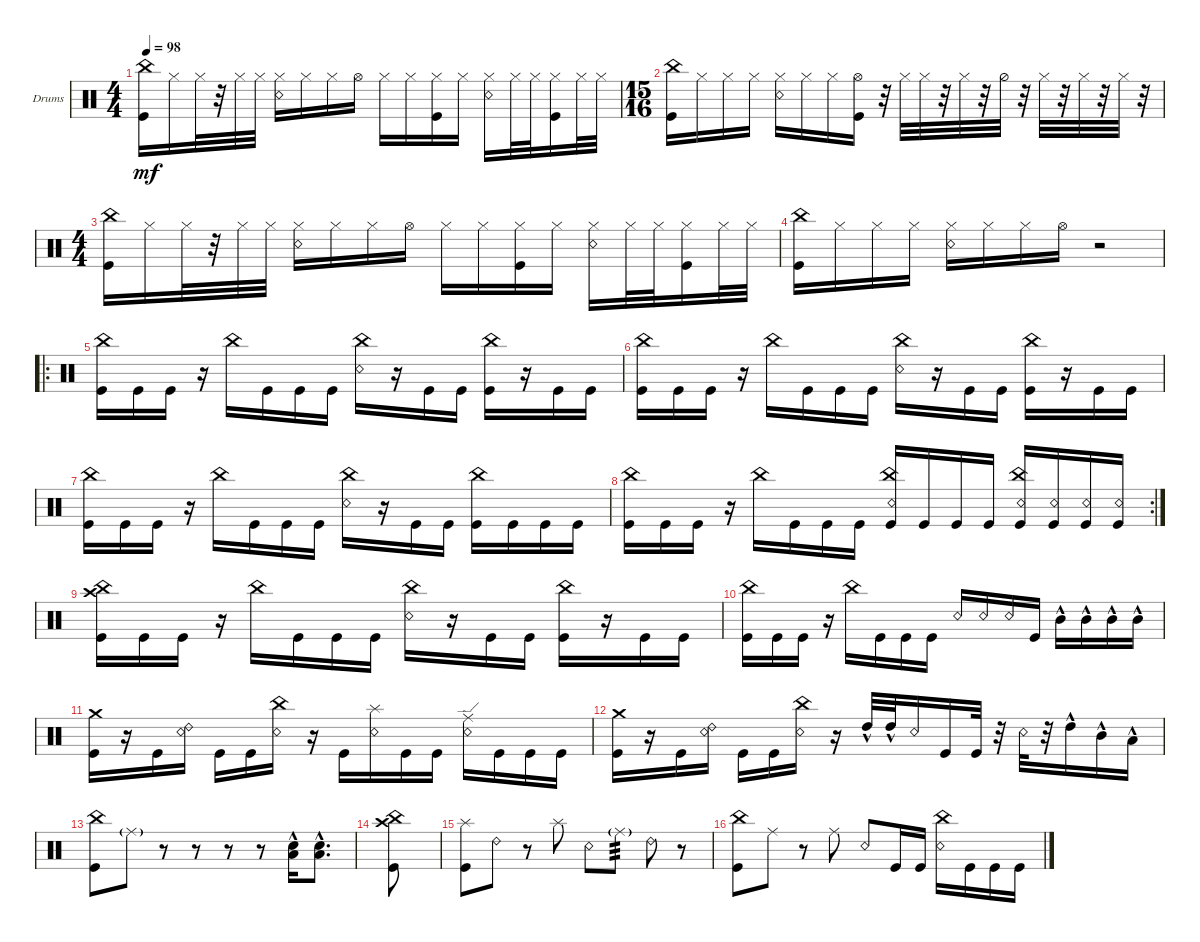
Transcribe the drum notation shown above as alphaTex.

\defaultSystemsLayout 4
\bracketExtendMode groupsimilarinstruments
\multiBarRest
\firstSystemTrackNameOrientation horizontal
\otherSystemsTrackNameOrientation horizontal
\track ("Drumkit" "Drums") {instrument percussion}
\staff {score}
\articulation defaults
\ts (4 4)
\tempo 98
\clef neutral
\ks c
("Kick (hit)" "China (hit)").16{dy mf} "Hi-Hat (closed)".16 "Hi-Hat (closed)".32 r.32 "Hi-Hat (closed)".32 "Hi-Hat (closed)".32 ("Hi-Hat (closed)" "Snare (rim shot)").16 "Hi-Hat (closed)".16 "Hi-Hat (closed)".16 "Hi-Hat (open)".16 "Hi-Hat (closed)".16 "Hi-Hat (closed)".16 ("Hi-Hat (closed)" "Kick (hit)").16 "Hi-Hat (closed)".16 ("Hi-Hat (closed)" "Snare (rim shot)").16 "Hi-Hat (closed)".32 "Hi-Hat (closed)".32 ("Hi-Hat (closed)" "Kick (hit)").16 "Hi-Hat (closed)".32 "Hi-Hat (closed)".32 |
\ts (15 16)
("Kick (hit)" "China (hit)").16 "Hi-Hat (closed)".16 "Hi-Hat (closed)".16 "Hi-Hat (closed)".16 ("Hi-Hat (closed)" "Snare (rim shot)").16 "Hi-Hat (closed)".16 "Hi-Hat (closed)".16 ("Hi-Hat (open)" "Kick (hit)").16 r.32 "Hi-Hat (closed)".32 "Hi-Hat (closed)".32 r.32 "Hi-Hat (closed)".32 r.32 "Hi-Hat (half)".32 r.32 "Hi-Hat (closed)".32 r.32 "Hi-Hat (closed)".32 r.32 "Hi-Hat (closed)".32 r.32 |
\ts (4 4)
("Kick (hit)" "China (hit)").16 "Hi-Hat (closed)".16 "Hi-Hat (closed)".32 r.32 "Hi-Hat (closed)".32 "Hi-Hat (closed)".32 ("Hi-Hat (closed)" "Snare (rim shot)").16 "Hi-Hat (closed)".16 "Hi-Hat (closed)".16 "Hi-Hat (open)".16 "Hi-Hat (closed)".16 "Hi-Hat (closed)".16 ("Hi-Hat (closed)" "Kick (hit)").16 "Hi-Hat (closed)".16 ("Hi-Hat (closed)" "Snare (rim shot)").16 "Hi-Hat (closed)".32 "Hi-Hat (closed)".32 ("Hi-Hat (closed)" "Kick (hit)").16 "Hi-Hat (closed)".32 "Hi-Hat (closed)".32 |
("Kick (hit)" "China (hit)").16 "Hi-Hat (closed)".16 "Hi-Hat (closed)".16 "Hi-Hat (closed)".16 ("Hi-Hat (closed)" "Snare (rim shot)").16 "Hi-Hat (closed)".16 "Hi-Hat (closed)".16 "Hi-Hat (open)".16 r.2 |
\ro
("Kick (hit)" "China (hit)").16 "Kick (hit)".16 "Kick (hit)".16 r.16 "China (hit)".16 "Kick (hit)".16 "Kick (hit)".16 "Kick (hit)".16 ("Snare (rim shot)" "China (hit)").16 r.16 "Kick (hit)".16 "Kick (hit)".16 ("Kick (hit)" "China (hit)").16 r.16 "Kick (hit)".16 "Kick (hit)".16 |
("Kick (hit)" "China (hit)").16 "Kick (hit)".16 "Kick (hit)".16 r.16 "China (hit)".16 "Kick (hit)".16 "Kick (hit)".16 "Kick (hit)".16 ("Snare (rim shot)" "China (hit)").16 r.16 "Kick (hit)".16 "Kick (hit)".16 ("Kick (hit)" "China (hit)").16 r.16 "Kick (hit)".16 "Kick (hit)".16 |
("Kick (hit)" "China (hit)").16 "Kick (hit)".16 "Kick (hit)".16 r.16 "China (hit)".16 "Kick (hit)".16 "Kick (hit)".16 "Kick (hit)".16 ("Snare (rim shot)" "China (hit)").16 r.16 "Kick (hit)".16 "Kick (hit)".16 ("Kick (hit)" "China (hit)").16 "Kick (hit)".16 "Kick (hit)".16 "Kick (hit)".16 |
\rc 2
("Kick (hit)" "China (hit)").16 "Kick (hit)".16 "Kick (hit)".16 r.16 "China (hit)".16 "Kick (hit)".16 "Kick (hit)".16 "Kick (hit)".16 ("Snare (rim shot)" "China (hit)" "Kick (hit)").16 "Kick (hit)".16 "Kick (hit)".16 "Kick (hit)".16 ("Kick (hit)" "China (hit)" "Snare (rim shot)").16 ("Kick (hit)" "Snare (rim shot)").16 ("Kick (hit)" "Snare (rim shot)").16 ("Kick (hit)" "Snare (rim shot)").16 |
("Kick (hit)" "China (hit)" "Crash high (hit)").16 "Kick (hit)".16 "Kick (hit)".16 r.16 "China (hit)".16 "Kick (hit)".16 "Kick (hit)".16 "Kick (hit)".16 ("Snare (rim shot)" "China (hit)").16 r.16 "Kick (hit)".16 "Kick (hit)".16 ("Kick (hit)" "China (hit)").16 r.16 "Kick (hit)".16 "Kick (hit)".16 |
("Kick (hit)" "China (hit)").16 "Kick (hit)".16 "Kick (hit)".16 r.16 "China (hit)".16 "Kick (hit)".16 "Kick (hit)".16 "Kick (hit)".16 "Snare (rim shot)".16 "Snare (rim shot)".16 "Snare (rim shot)".16 "Kick (hit)".16 "Mid Tom (hit)"{hac}.16 "Mid Tom (hit)"{hac}.16 "Mid Tom (hit)"{hac}.16 "Mid Tom (hit)"{hac}.16 |
("Crash medium (hit)" "Kick (hit)").16 r.16 "Kick (hit)".16 ("Snare (rim shot)" "Ride (bell) 2").16 "Kick (hit)".16 "Kick (hit)".16 ("Snare (rim shot)" "China (hit)").16 r.16 "Kick (hit)".16 ("Snare (rim shot)" "Splash (hit)").16 "Kick (hit)".16 "Kick (hit)".16 ("Snare (rim shot)" "Ride (edge)").16 "Kick (hit)".16 "Kick (hit)".16 "Kick (hit)".16 |
("Crash medium (hit)" "Kick (hit)").16 r.16 "Kick (hit)".16 ("Snare (rim shot)" "Ride (bell) 2").16 "Kick (hit)".16 "Kick (hit)".16 ("Snare (rim shot)" "China (hit)").16 r.16 "High Tom (hit)"{hac}.32 "High Tom (hit)"{hac}.32 "Snare (rim shot)".16 "Kick (hit)".16 "Kick (hit)".32 r.32 "Snare (rim shot)".32 r.32 "High Tom (hit)"{hac}.16 "Mid Tom (hit)"{hac}.16 "Low Tom (hit)"{hac}.16 |
("Kick (hit)" "China (hit)").8 "Ride (middle)"{g}.8 r.8 r.8 r.8 r.8 ("Snare (hit) 2"{hac} "Low Tom (hit)"{hac}).16 ("Snare (hit) 2"{hac} "Low Tom (hit)"{hac}).8{d} |
("Kick (hit)" "China (hit)" "Crash high (hit)").8 |
("Kick (hit)" "Splash (hit)").8 "Ride (bell) 2".8 r.8 "Splash (hit)".8 "Snare (rim shot)".8 "Ride (middle)"{g}.8{tp 3} "Ride (bell) 2".8 r.8 |
("Kick (hit)" "China (hit)").8 "Ride (middle)".8 r.8 "Ride (middle)".8 "Snare (rim shot)".8 "Kick (hit)".16 "Kick (hit)".16 ("Snare (rim shot)" "China (hit)").16 "Kick (hit)".16 "Kick (hit)".16 "Kick (hit)".16
